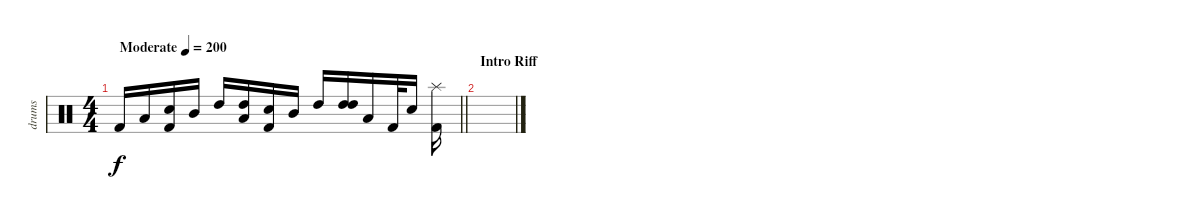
\track ("drums" "drums") {instrument percussion}
\staff {score}
\articulation defaults
\ts (4 4)
\tempo (200 "Moderate")
\clef neutral
\barLineRight lightlight
\ks c "Kick (hit) 2".16{dy f} "Low Floor Tom (hit)".16
("Kick (hit) 2" "Snare (hit) 2").16 "Mid Tom (hit)".16 "High Tom (hit)".16 ("High Tom (hit)" "Low Floor Tom (hit)").16 ("Kick (hit) 2" "Snare (hit) 2").16 "Mid Tom (hit)".16 "High Tom (hit)".16 ("High Tom (hit)" "High Tom (hit)").16 "Low Floor Tom (hit)".16 "Kick (hit) 2".32 "Snare (hit) 2".16 ("Splash (hit)" "Kick (hit) 2").16 |
\section ("" "Intro Riff")
